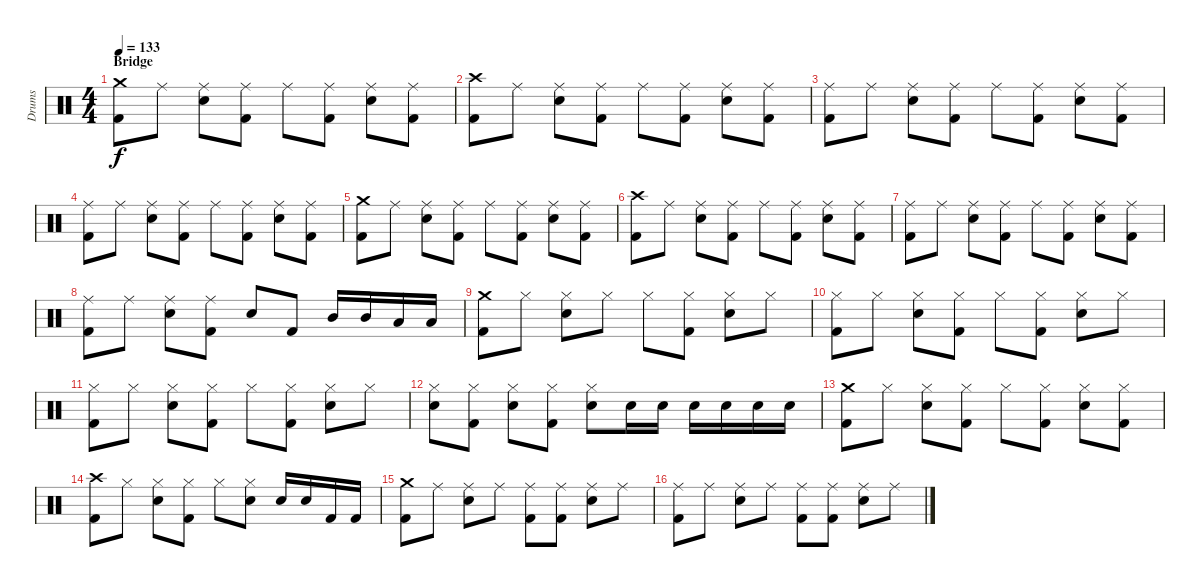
\track ("Drums" "Drums") {instrument percussion}
\staff {score}
\articulation defaults
\ts (4 4)
\section ("" "Bridge")
\tempo 133
\clef neutral
\ks c
("Crash medium (hit)" "Kick (hit) 2").8{dy f} "Ride (middle)".8 ("Ride (middle)" "Snare (hit) 2").8 ("Ride (middle)" "Kick (hit) 2").8 "Ride (middle)".8 ("Ride (middle)" "Kick (hit) 2").8 ("Ride (middle)" "Snare (hit) 2").8 ("Ride (middle)" "Kick (hit) 2").8 |
("Crash high (hit)" "Kick (hit) 2").8 "Ride (middle)".8 ("Ride (middle)" "Snare (hit) 2").8 ("Ride (middle)" "Kick (hit) 2").8 "Ride (middle)".8 ("Ride (middle)" "Kick (hit) 2").8 ("Ride (middle)" "Snare (hit) 2").8 ("Ride (middle)" "Kick (hit) 2").8 |
("Ride (middle)" "Kick (hit) 2").8 "Ride (middle)".8 ("Ride (middle)" "Snare (hit) 2").8 ("Ride (middle)" "Kick (hit) 2").8 "Ride (middle)".8 ("Ride (middle)" "Kick (hit) 2").8 ("Ride (middle)" "Snare (hit) 2").8 ("Ride (middle)" "Kick (hit) 2").8 |
("Ride (middle)" "Kick (hit) 2").8 "Ride (middle)".8 ("Ride (middle)" "Snare (hit) 2").8 ("Ride (middle)" "Kick (hit) 2").8 "Ride (middle)".8 ("Ride (middle)" "Kick (hit) 2").8 ("Ride (middle)" "Snare (hit) 2").8 ("Ride (middle)" "Kick (hit) 2").8 |
("Crash medium (hit)" "Kick (hit) 2").8 "Ride (middle)".8 ("Ride (middle)" "Snare (hit) 2").8 ("Ride (middle)" "Kick (hit) 2").8 "Ride (middle)".8 ("Ride (middle)" "Kick (hit) 2").8 ("Ride (middle)" "Snare (hit) 2").8 ("Ride (middle)" "Kick (hit) 2").8 |
("Crash high (hit)" "Kick (hit) 2").8 "Ride (middle)".8 ("Ride (middle)" "Snare (hit) 2").8 ("Ride (middle)" "Kick (hit) 2").8 "Ride (middle)".8 ("Ride (middle)" "Kick (hit) 2").8 ("Ride (middle)" "Snare (hit) 2").8 ("Ride (middle)" "Kick (hit) 2").8 |
("Ride (middle)" "Kick (hit) 2").8 "Ride (middle)".8 ("Ride (middle)" "Snare (hit) 2").8 ("Ride (middle)" "Kick (hit) 2").8 "Ride (middle)".8 ("Ride (middle)" "Kick (hit) 2").8 ("Ride (middle)" "Snare (hit) 2").8 ("Ride (middle)" "Kick (hit) 2").8 |
("Ride (middle)" "Kick (hit) 2").8 "Ride (middle)".8 ("Ride (middle)" "Snare (hit) 2").8 ("Ride (middle)" "Kick (hit) 2").8 "Snare (hit) 2".8 "Kick (hit) 2".8 "Mid Tom (hit)".16 "Mid Tom (hit)".16 "Low Tom (hit)".16 "Low Tom (hit)".16 |
("Crash medium (hit)" "Kick (hit) 2").8 "Hi-Hat (closed)".8 ("Hi-Hat (closed)" "Snare (hit) 2").8 "Hi-Hat (closed)".8 "Hi-Hat (closed)".8 ("Hi-Hat (closed)" "Kick (hit) 2").8 ("Hi-Hat (closed)" "Snare (hit) 2").8 "Hi-Hat (closed)".8 |
("Hi-Hat (closed)" "Kick (hit) 2").8 "Hi-Hat (closed)".8 ("Hi-Hat (closed)" "Snare (hit) 2").8 ("Hi-Hat (closed)" "Kick (hit) 2").8 "Hi-Hat (closed)".8 ("Hi-Hat (closed)" "Kick (hit) 2").8 ("Hi-Hat (closed)" "Snare (hit) 2").8 "Hi-Hat (closed)".8 |
("Hi-Hat (closed)" "Kick (hit) 2").8 "Hi-Hat (closed)".8 ("Hi-Hat (closed)" "Snare (hit) 2").8 ("Hi-Hat (closed)" "Kick (hit) 2").8 "Hi-Hat (closed)".8 ("Hi-Hat (closed)" "Kick (hit) 2").8 ("Hi-Hat (closed)" "Snare (hit) 2").8 "Hi-Hat (closed)".8 |
("Hi-Hat (closed)" "Snare (hit) 2").8 ("Hi-Hat (closed)" "Kick (hit) 2").8 ("Hi-Hat (closed)" "Snare (hit) 2").8 ("Hi-Hat (closed)" "Kick (hit) 2").8 ("Hi-Hat (closed)" "Snare (hit) 2").8 "Snare (hit) 2".16 "Snare (hit) 2".16 "Snare (hit) 2".16 "Snare (hit) 2".16 "Snare (hit) 2".16 "Snare (hit) 2".16 |
("Crash medium (hit)" "Kick (hit) 2").8 "Hi-Hat (closed)".8 ("Hi-Hat (closed)" "Snare (hit) 2").8 ("Hi-Hat (closed)" "Kick (hit) 2").8 "Hi-Hat (closed)".8 ("Hi-Hat (closed)" "Kick (hit) 2").8 ("Hi-Hat (closed)" "Snare (hit) 2").8 ("Hi-Hat (closed)" "Kick (hit) 2").8 |
("Crash high (hit)" "Kick (hit) 2").8 "Hi-Hat (closed)".8 ("Hi-Hat (closed)" "Snare (hit) 2").8 ("Hi-Hat (closed)" "Kick (hit) 2").8 "Hi-Hat (closed)".8 ("Hi-Hat (closed)" "Snare (hit) 2").8 "Snare (hit) 2".16 "Snare (hit) 2".16 "Kick (hit) 2".16 "Kick (hit) 2".16 |
("Crash medium (hit)" "Kick (hit) 2").8 "Ride (middle)".8 ("Ride (middle)" "Snare (hit) 2").8 "Ride (middle)".8 ("Ride (middle)" "Kick (hit) 2").8 ("Ride (middle)" "Kick (hit) 2").8 ("Ride (middle)" "Snare (hit) 2").8 "Ride (middle)".8 |
("Ride (middle)" "Kick (hit) 2").8 "Ride (middle)".8 ("Ride (middle)" "Snare (hit) 2").8 "Ride (middle)".8 ("Ride (middle)" "Kick (hit) 2").8 ("Ride (middle)" "Kick (hit) 2").8 ("Ride (middle)" "Snare (hit) 2").8 "Ride (middle)".8
